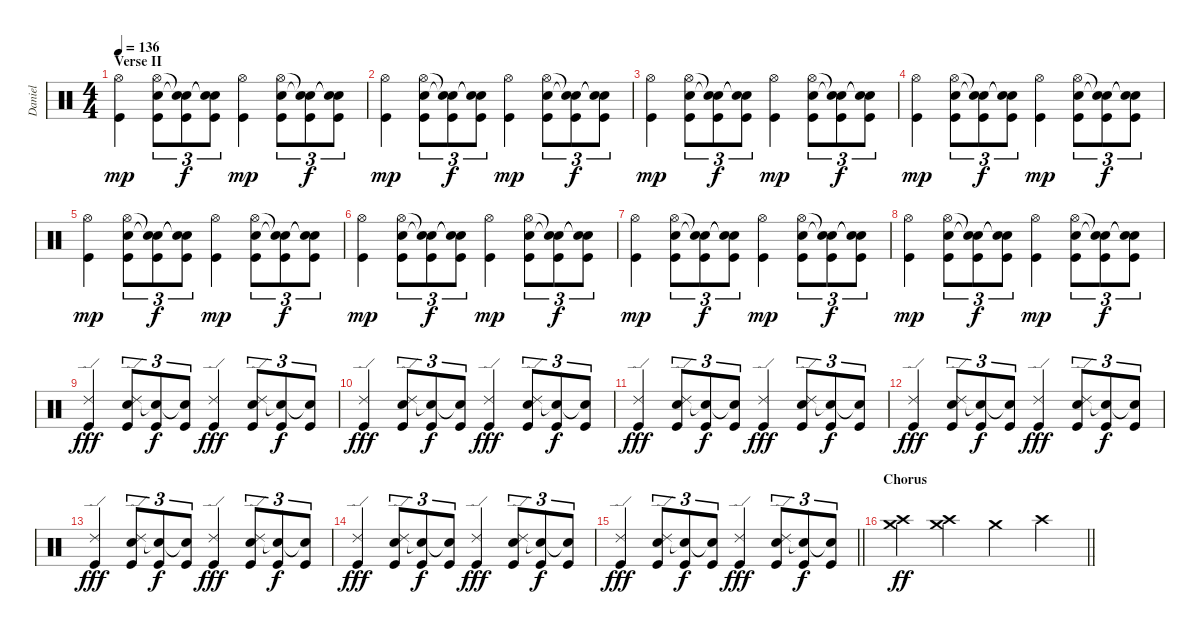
\track ("Daniel" "Daniel") {instrument percussion}
\staff {score}
\articulation defaults
\ts (4 4)
\section ("" "Verse II")
\tempo 136
\clef neutral
\ks c
("Hi-Hat (open)" "Kick (hit)").4{dy mp} ("Hi-Hat (open)" "Snare (hit) 2" "Kick (hit)").8{tu (3 2)} ("Snare (hit)"{t} "Snare (hit)"{t} "Kick (hit)").8{tu (3 2) dy f} ("Snare (hit)"{t} "Snare (hit)"{t} "Kick (hit)").8{tu (3 2)} ("Hi-Hat (open)" "Kick (hit)").4{dy mp} ("Hi-Hat (open)" "Snare (hit) 2" "Kick (hit)").8{tu (3 2)} ("Snare (hit)"{t} "Snare (hit)"{t} "Kick (hit)").8{tu (3 2) dy f} ("Snare (hit)"{t} "Snare (hit)"{t} "Kick (hit)").8{tu (3 2)} |
("Hi-Hat (open)" "Kick (hit)").4{dy mp} ("Hi-Hat (open)" "Snare (hit) 2" "Kick (hit)").8{tu (3 2)} ("Snare (hit)"{t} "Snare (hit)"{t} "Kick (hit)").8{tu (3 2) dy f} ("Snare (hit)"{t} "Snare (hit)"{t} "Kick (hit)").8{tu (3 2)} ("Hi-Hat (open)" "Kick (hit)").4{dy mp} ("Hi-Hat (open)" "Snare (hit) 2" "Kick (hit)").8{tu (3 2)} ("Snare (hit)"{t} "Snare (hit)"{t} "Kick (hit)").8{tu (3 2) dy f} ("Snare (hit)"{t} "Snare (hit)"{t} "Kick (hit)").8{tu (3 2)} |
("Hi-Hat (open)" "Kick (hit)").4{dy mp} ("Hi-Hat (open)" "Snare (hit) 2" "Kick (hit)").8{tu (3 2)} ("Snare (hit)"{t} "Snare (hit)"{t} "Kick (hit)").8{tu (3 2) dy f} ("Snare (hit)"{t} "Snare (hit)"{t} "Kick (hit)").8{tu (3 2)} ("Hi-Hat (open)" "Kick (hit)").4{dy mp} ("Hi-Hat (open)" "Snare (hit) 2" "Kick (hit)").8{tu (3 2)} ("Snare (hit)"{t} "Snare (hit)"{t} "Kick (hit)").8{tu (3 2) dy f} ("Snare (hit)"{t} "Snare (hit)"{t} "Kick (hit)").8{tu (3 2)} |
("Hi-Hat (open)" "Kick (hit)").4{dy mp} ("Hi-Hat (open)" "Snare (hit) 2" "Kick (hit)").8{tu (3 2)} ("Snare (hit)"{t} "Snare (hit)"{t} "Kick (hit)").8{tu (3 2) dy f} ("Snare (hit)"{t} "Snare (hit)"{t} "Kick (hit)").8{tu (3 2)} ("Hi-Hat (open)" "Kick (hit)").4{dy mp} ("Hi-Hat (open)" "Snare (hit) 2" "Kick (hit)").8{tu (3 2)} ("Snare (hit)"{t} "Snare (hit)"{t} "Kick (hit)").8{tu (3 2) dy f} ("Snare (hit)"{t} "Snare (hit)"{t} "Kick (hit)").8{tu (3 2)} |
("Hi-Hat (open)" "Kick (hit)").4{dy mp} ("Hi-Hat (open)" "Snare (hit) 2" "Kick (hit)").8{tu (3 2)} ("Snare (hit)"{t} "Snare (hit)"{t} "Kick (hit)").8{tu (3 2) dy f} ("Snare (hit)"{t} "Snare (hit)"{t} "Kick (hit)").8{tu (3 2)} ("Hi-Hat (open)" "Kick (hit)").4{dy mp} ("Hi-Hat (open)" "Snare (hit) 2" "Kick (hit)").8{tu (3 2)} ("Snare (hit)"{t} "Snare (hit)"{t} "Kick (hit)").8{tu (3 2) dy f} ("Snare (hit)"{t} "Snare (hit)"{t} "Kick (hit)").8{tu (3 2)} |
("Hi-Hat (open)" "Kick (hit)").4{dy mp} ("Hi-Hat (open)" "Snare (hit) 2" "Kick (hit)").8{tu (3 2)} ("Snare (hit)"{t} "Snare (hit)"{t} "Kick (hit)").8{tu (3 2) dy f} ("Snare (hit)"{t} "Snare (hit)"{t} "Kick (hit)").8{tu (3 2)} ("Hi-Hat (open)" "Kick (hit)").4{dy mp} ("Hi-Hat (open)" "Snare (hit) 2" "Kick (hit)").8{tu (3 2)} ("Snare (hit)"{t} "Snare (hit)"{t} "Kick (hit)").8{tu (3 2) dy f} ("Snare (hit)"{t} "Snare (hit)"{t} "Kick (hit)").8{tu (3 2)} |
("Hi-Hat (open)" "Kick (hit)").4{dy mp} ("Hi-Hat (open)" "Snare (hit) 2" "Kick (hit)").8{tu (3 2)} ("Snare (hit)"{t} "Snare (hit)"{t} "Kick (hit)").8{tu (3 2) dy f} ("Snare (hit)"{t} "Snare (hit)"{t} "Kick (hit)").8{tu (3 2)} ("Hi-Hat (open)" "Kick (hit)").4{dy mp} ("Hi-Hat (open)" "Snare (hit) 2" "Kick (hit)").8{tu (3 2)} ("Snare (hit)"{t} "Snare (hit)"{t} "Kick (hit)").8{tu (3 2) dy f} ("Snare (hit)"{t} "Snare (hit)"{t} "Kick (hit)").8{tu (3 2)} |
("Hi-Hat (open)" "Kick (hit)").4{dy mp} ("Hi-Hat (open)" "Snare (hit) 2" "Kick (hit)").8{tu (3 2)} ("Snare (hit)"{t} "Snare (hit)"{t} "Kick (hit)").8{tu (3 2) dy f} ("Snare (hit)"{t} "Snare (hit)"{t} "Kick (hit)").8{tu (3 2)} ("Hi-Hat (open)" "Kick (hit)").4{dy mp} ("Hi-Hat (open)" "Snare (hit) 2" "Kick (hit)").8{tu (3 2)} ("Snare (hit)"{t} "Snare (hit)"{t} "Kick (hit)").8{tu (3 2) dy f} ("Snare (hit)"{t} "Snare (hit)"{t} "Kick (hit)").8{tu (3 2)} |
("Ride (edge) 2" "Kick (hit)").4{dy fff} ("Ride (edge) 2" "Snare (hit) 2" "Kick (hit)").8{tu (3 2)} ("Snare (hit)"{t} "Kick (hit)").8{tu (3 2) dy f} ("Snare (hit)"{t} "Kick (hit)").8{tu (3 2)} ("Ride (edge) 2" "Kick (hit)").4{dy fff} ("Ride (edge) 2" "Snare (hit) 2" "Kick (hit)").8{tu (3 2)} ("Snare (hit)"{t} "Kick (hit)").8{tu (3 2) dy f} ("Snare (hit)"{t} "Kick (hit)").8{tu (3 2)} |
("Ride (edge) 2" "Kick (hit)").4{dy fff} ("Ride (edge) 2" "Snare (hit) 2" "Kick (hit)").8{tu (3 2)} ("Snare (hit)"{t} "Kick (hit)").8{tu (3 2) dy f} ("Snare (hit)"{t} "Kick (hit)").8{tu (3 2)} ("Ride (edge) 2" "Kick (hit)").4{dy fff} ("Ride (edge) 2" "Snare (hit) 2" "Kick (hit)").8{tu (3 2)} ("Snare (hit)"{t} "Kick (hit)").8{tu (3 2) dy f} ("Snare (hit)"{t} "Kick (hit)").8{tu (3 2)} |
("Ride (edge) 2" "Kick (hit)").4{dy fff} ("Ride (edge) 2" "Snare (hit) 2" "Kick (hit)").8{tu (3 2)} ("Snare (hit)"{t} "Kick (hit)").8{tu (3 2) dy f} ("Snare (hit)"{t} "Kick (hit)").8{tu (3 2)} ("Ride (edge) 2" "Kick (hit)").4{dy fff} ("Ride (edge) 2" "Snare (hit) 2" "Kick (hit)").8{tu (3 2)} ("Snare (hit)"{t} "Kick (hit)").8{tu (3 2) dy f} ("Snare (hit)"{t} "Kick (hit)").8{tu (3 2)} |
("Ride (edge) 2" "Kick (hit)").4{dy fff} ("Ride (edge) 2" "Snare (hit) 2" "Kick (hit)").8{tu (3 2)} ("Snare (hit)"{t} "Kick (hit)").8{tu (3 2) dy f} ("Snare (hit)"{t} "Kick (hit)").8{tu (3 2)} ("Ride (edge) 2" "Kick (hit)").4{dy fff} ("Ride (edge) 2" "Snare (hit) 2" "Kick (hit)").8{tu (3 2)} ("Snare (hit)"{t} "Kick (hit)").8{tu (3 2) dy f} ("Snare (hit)"{t} "Kick (hit)").8{tu (3 2)} |
("Ride (edge) 2" "Kick (hit)").4{dy fff} ("Ride (edge) 2" "Snare (hit) 2" "Kick (hit)").8{tu (3 2)} ("Snare (hit)"{t} "Kick (hit)").8{tu (3 2) dy f} ("Snare (hit)"{t} "Kick (hit)").8{tu (3 2)} ("Ride (edge) 2" "Kick (hit)").4{dy fff} ("Ride (edge) 2" "Snare (hit) 2" "Kick (hit)").8{tu (3 2)} ("Snare (hit)"{t} "Kick (hit)").8{tu (3 2) dy f} ("Snare (hit)"{t} "Kick (hit)").8{tu (3 2)} |
("Ride (edge) 2" "Kick (hit)").4{dy fff} ("Ride (edge) 2" "Snare (hit) 2" "Kick (hit)").8{tu (3 2)} ("Snare (hit)"{t} "Kick (hit)").8{tu (3 2) dy f} ("Snare (hit)"{t} "Kick (hit)").8{tu (3 2)} ("Ride (edge) 2" "Kick (hit)").4{dy fff} ("Ride (edge) 2" "Snare (hit) 2" "Kick (hit)").8{tu (3 2)} ("Snare (hit)"{t} "Kick (hit)").8{tu (3 2) dy f} ("Snare (hit)"{t} "Kick (hit)").8{tu (3 2)} |
\barLineRight lightlight
("Ride (edge) 2" "Kick (hit)").4{dy fff} ("Ride (edge) 2" "Snare (hit) 2" "Kick (hit)").8{tu (3 2)} ("Snare (hit)"{t} "Kick (hit)").8{tu (3 2) dy f} ("Snare (hit)"{t} "Kick (hit)").8{tu (3 2)} ("Ride (edge) 2" "Kick (hit)").4{dy fff} ("Ride (edge) 2" "Snare (hit) 2" "Kick (hit)").8{tu (3 2)} ("Snare (hit)"{t} "Kick (hit)").8{tu (3 2) dy f} ("Snare (hit)"{t} "Kick (hit)").8{tu (3 2)} |
\section ("" "Chorus")
\barLineRight lightlight
("Crash high (hit)" "Crash medium (hit)").4{dy ff} ("Crash high (hit)" "Crash medium (hit)").4 "Crash medium (hit)".4 "Crash high (hit)".4
